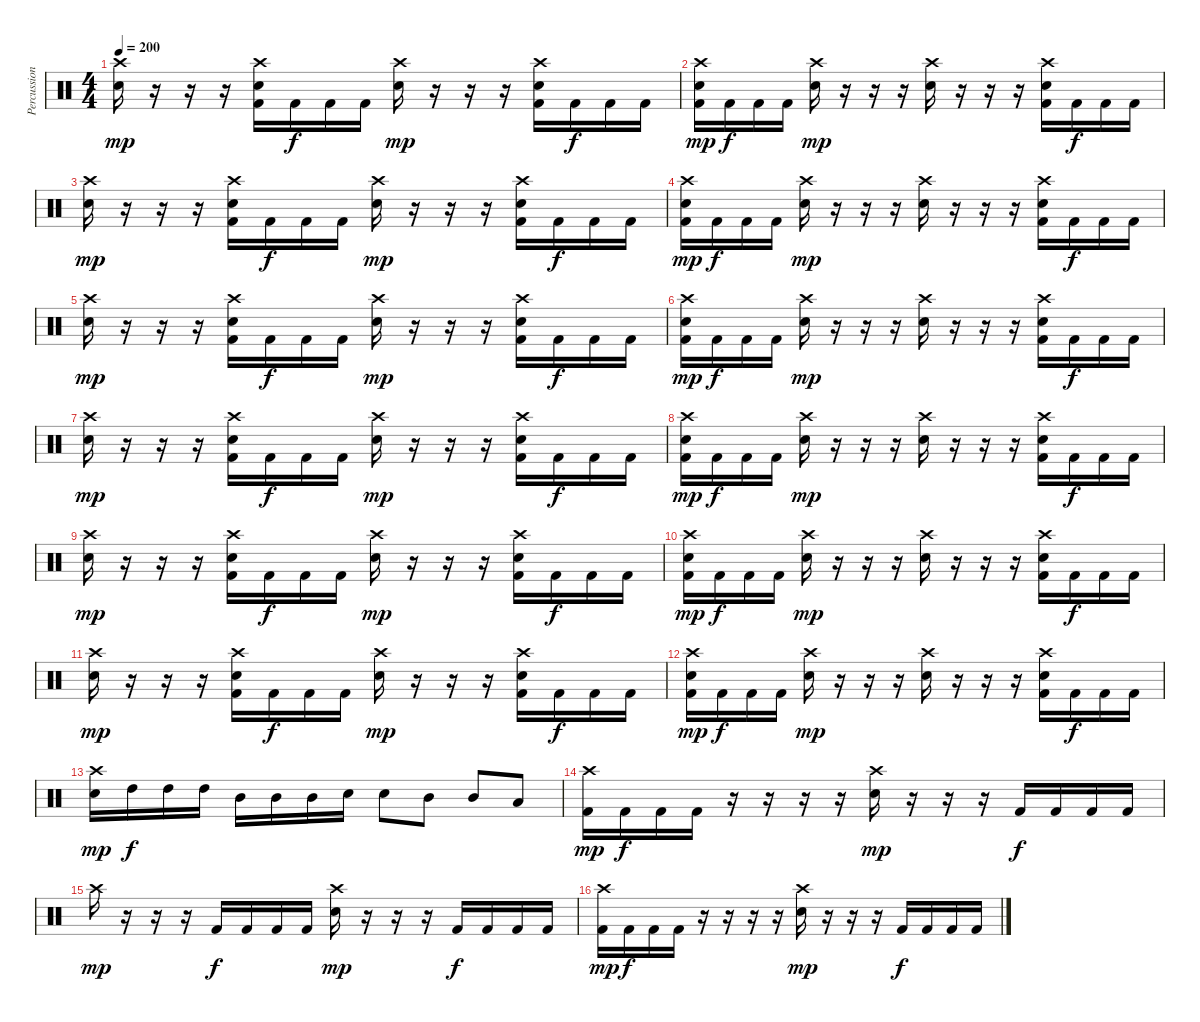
\track ("Percussions ( Brylle )" "Percussion") {instrument percussion}
\staff {score}
\articulation defaults
\ts (4 4)
\tempo 200
\clef neutral
\ks c
("Crash high (hit)" "Electric Snare (hit)").16{dy mp} r.16 r.16 r.16 ("Crash high (hit)" "Electric Snare (hit)" "Kick (hit) 2").16 "Kick (hit) 2".16{dy f} "Kick (hit) 2".16 "Kick (hit) 2".16 ("Crash high (hit)" "Electric Snare (hit)").16{dy mp} r.16 r.16 r.16 ("Crash high (hit)" "Electric Snare (hit)" "Kick (hit) 2").16 "Kick (hit) 2".16{dy f} "Kick (hit) 2".16 "Kick (hit) 2".16 |
("Crash high (hit)" "Electric Snare (hit)" "Kick (hit) 2").16{dy mp} "Kick (hit) 2".16{dy f} "Kick (hit) 2".16 "Kick (hit) 2".16 ("Crash high (hit)" "Electric Snare (hit)").16{dy mp} r.16 r.16 r.16 ("Crash high (hit)" "Electric Snare (hit)").16 r.16 r.16 r.16 ("Crash high (hit)" "Electric Snare (hit)" "Kick (hit) 2").16 "Kick (hit) 2".16{dy f} "Kick (hit) 2".16 "Kick (hit) 2".16 |
("Crash high (hit)" "Electric Snare (hit)").16{dy mp} r.16 r.16 r.16 ("Crash high (hit)" "Electric Snare (hit)" "Kick (hit) 2").16 "Kick (hit) 2".16{dy f} "Kick (hit) 2".16 "Kick (hit) 2".16 ("Crash high (hit)" "Electric Snare (hit)").16{dy mp} r.16 r.16 r.16 ("Crash high (hit)" "Electric Snare (hit)" "Kick (hit) 2").16 "Kick (hit) 2".16{dy f} "Kick (hit) 2".16 "Kick (hit) 2".16 |
("Crash high (hit)" "Electric Snare (hit)" "Kick (hit) 2").16{dy mp} "Kick (hit) 2".16{dy f} "Kick (hit) 2".16 "Kick (hit) 2".16 ("Crash high (hit)" "Electric Snare (hit)").16{dy mp} r.16 r.16 r.16 ("Crash high (hit)" "Electric Snare (hit)").16 r.16 r.16 r.16 ("Crash high (hit)" "Electric Snare (hit)" "Kick (hit) 2").16 "Kick (hit) 2".16{dy f} "Kick (hit) 2".16 "Kick (hit) 2".16 |
("Crash high (hit)" "Electric Snare (hit)").16{dy mp} r.16 r.16 r.16 ("Crash high (hit)" "Electric Snare (hit)" "Kick (hit) 2").16 "Kick (hit) 2".16{dy f} "Kick (hit) 2".16 "Kick (hit) 2".16 ("Crash high (hit)" "Electric Snare (hit)").16{dy mp} r.16 r.16 r.16 ("Crash high (hit)" "Electric Snare (hit)" "Kick (hit) 2").16 "Kick (hit) 2".16{dy f} "Kick (hit) 2".16 "Kick (hit) 2".16 |
("Crash high (hit)" "Electric Snare (hit)" "Kick (hit) 2").16{dy mp} "Kick (hit) 2".16{dy f} "Kick (hit) 2".16 "Kick (hit) 2".16 ("Crash high (hit)" "Electric Snare (hit)").16{dy mp} r.16 r.16 r.16 ("Crash high (hit)" "Electric Snare (hit)").16 r.16 r.16 r.16 ("Crash high (hit)" "Electric Snare (hit)" "Kick (hit) 2").16 "Kick (hit) 2".16{dy f} "Kick (hit) 2".16 "Kick (hit) 2".16 |
("Crash high (hit)" "Electric Snare (hit)").16{dy mp} r.16 r.16 r.16 ("Crash high (hit)" "Electric Snare (hit)" "Kick (hit) 2").16 "Kick (hit) 2".16{dy f} "Kick (hit) 2".16 "Kick (hit) 2".16 ("Crash high (hit)" "Electric Snare (hit)").16{dy mp} r.16 r.16 r.16 ("Crash high (hit)" "Electric Snare (hit)" "Kick (hit) 2").16 "Kick (hit) 2".16{dy f} "Kick (hit) 2".16 "Kick (hit) 2".16 |
("Crash high (hit)" "Electric Snare (hit)" "Kick (hit) 2").16{dy mp} "Kick (hit) 2".16{dy f} "Kick (hit) 2".16 "Kick (hit) 2".16 ("Crash high (hit)" "Electric Snare (hit)").16{dy mp} r.16 r.16 r.16 ("Crash high (hit)" "Electric Snare (hit)").16 r.16 r.16 r.16 ("Crash high (hit)" "Electric Snare (hit)" "Kick (hit) 2").16 "Kick (hit) 2".16{dy f} "Kick (hit) 2".16 "Kick (hit) 2".16 |
("Crash high (hit)" "Electric Snare (hit)").16{dy mp} r.16 r.16 r.16 ("Crash high (hit)" "Electric Snare (hit)" "Kick (hit) 2").16 "Kick (hit) 2".16{dy f} "Kick (hit) 2".16 "Kick (hit) 2".16 ("Crash high (hit)" "Electric Snare (hit)").16{dy mp} r.16 r.16 r.16 ("Crash high (hit)" "Electric Snare (hit)" "Kick (hit) 2").16 "Kick (hit) 2".16{dy f} "Kick (hit) 2".16 "Kick (hit) 2".16 |
("Crash high (hit)" "Electric Snare (hit)" "Kick (hit) 2").16{dy mp} "Kick (hit) 2".16{dy f} "Kick (hit) 2".16 "Kick (hit) 2".16 ("Crash high (hit)" "Electric Snare (hit)").16{dy mp} r.16 r.16 r.16 ("Crash high (hit)" "Electric Snare (hit)").16 r.16 r.16 r.16 ("Crash high (hit)" "Electric Snare (hit)" "Kick (hit) 2").16 "Kick (hit) 2".16{dy f} "Kick (hit) 2".16 "Kick (hit) 2".16 |
("Crash high (hit)" "Electric Snare (hit)").16{dy mp} r.16 r.16 r.16 ("Crash high (hit)" "Electric Snare (hit)" "Kick (hit) 2").16 "Kick (hit) 2".16{dy f} "Kick (hit) 2".16 "Kick (hit) 2".16 ("Crash high (hit)" "Electric Snare (hit)").16{dy mp} r.16 r.16 r.16 ("Crash high (hit)" "Electric Snare (hit)" "Kick (hit) 2").16 "Kick (hit) 2".16{dy f} "Kick (hit) 2".16 "Kick (hit) 2".16 |
("Crash high (hit)" "Electric Snare (hit)" "Kick (hit) 2").16{dy mp} "Kick (hit) 2".16{dy f} "Kick (hit) 2".16 "Kick (hit) 2".16 ("Crash high (hit)" "Electric Snare (hit)").16{dy mp} r.16 r.16 r.16 ("Crash high (hit)" "Electric Snare (hit)").16 r.16 r.16 r.16 ("Crash high (hit)" "Electric Snare (hit)" "Kick (hit) 2").16 "Kick (hit) 2".16{dy f} "Kick (hit) 2".16 "Kick (hit) 2".16 |
("Crash high (hit)" "Electric Snare (hit)").16{dy mp} "High Tom (hit)".16{dy f} "High Tom (hit)".16 "High Tom (hit)".16 "Mid Tom (hit)".16 "Mid Tom (hit)".16 "Mid Tom (hit)".16 "Electric Snare (hit)".16 "Electric Snare (hit)".8 "Mid Tom (hit)".8 "Mid Tom (hit)".8 "Low Tom (hit)".8 |
("Crash high (hit)" "Kick (hit) 2").16{dy mp} "Kick (hit) 2".16{dy f} "Kick (hit) 2".16 "Kick (hit) 2".16 r.16 r.16 r.16 r.16 ("Crash high (hit)" "Electric Snare (hit)").16{dy mp} r.16 r.16 r.16 "Kick (hit) 2".16{dy f} "Kick (hit) 2".16 "Kick (hit) 2".16 "Kick (hit) 2".16 |
"Crash high (hit)".16{dy mp} r.16 r.16 r.16 "Kick (hit) 2".16{dy f} "Kick (hit) 2".16 "Kick (hit) 2".16 "Kick (hit) 2".16 ("Crash high (hit)" "Electric Snare (hit)").16{dy mp} r.16 r.16 r.16 "Kick (hit) 2".16{dy f} "Kick (hit) 2".16 "Kick (hit) 2".16 "Kick (hit) 2".16 |
("Crash high (hit)" "Kick (hit) 2").16{dy mp} "Kick (hit) 2".16{dy f} "Kick (hit) 2".16 "Kick (hit) 2".16 r.16 r.16 r.16 r.16 ("Crash high (hit)" "Electric Snare (hit)").16{dy mp} r.16 r.16 r.16 "Kick (hit) 2".16{dy f} "Kick (hit) 2".16 "Kick (hit) 2".16 "Kick (hit) 2".16
